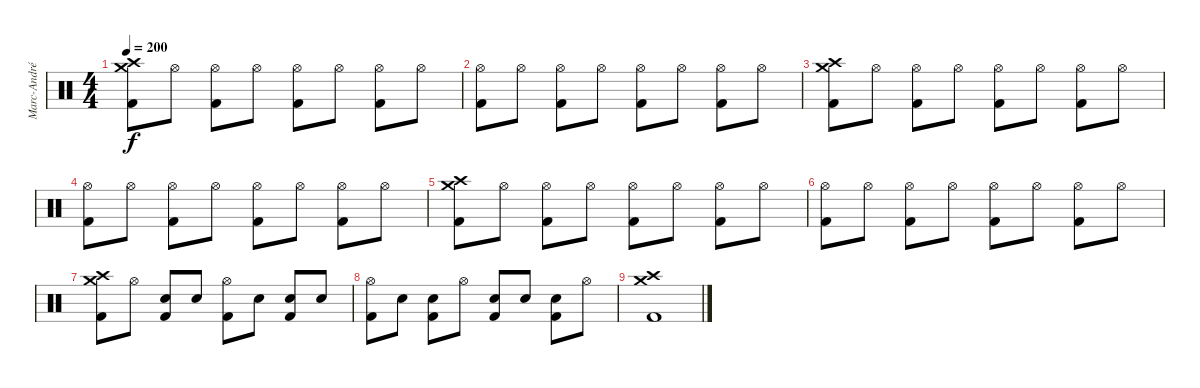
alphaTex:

\track ("Marc-André Barabé" "Marc-André") {instrument percussion}
\staff {score}
\articulation defaults
\ts (4 4)
\tempo 200
\clef neutral
\ks c
("Crash high (hit)" "Crash medium (hit)" "Kick (hit) 2").8{dy f} "Hi-Hat (open)".8 ("Hi-Hat (open)" "Kick (hit) 2").8 "Hi-Hat (open)".8 ("Hi-Hat (open)" "Kick (hit) 2").8 "Hi-Hat (open)".8 ("Hi-Hat (open)" "Kick (hit) 2").8 "Hi-Hat (open)".8 |
("Hi-Hat (open)" "Kick (hit) 2").8 "Hi-Hat (open)".8 ("Hi-Hat (open)" "Kick (hit) 2").8 "Hi-Hat (open)".8 ("Hi-Hat (open)" "Kick (hit) 2").8 "Hi-Hat (open)".8 ("Hi-Hat (open)" "Kick (hit) 2").8 "Hi-Hat (open)".8 |
("Crash high (hit)" "Crash medium (hit)" "Kick (hit) 2").8 "Hi-Hat (open)".8 ("Hi-Hat (open)" "Kick (hit) 2").8 "Hi-Hat (open)".8 ("Hi-Hat (open)" "Kick (hit) 2").8 "Hi-Hat (open)".8 ("Hi-Hat (open)" "Kick (hit) 2").8 "Hi-Hat (open)".8 |
("Hi-Hat (open)" "Kick (hit) 2").8 "Hi-Hat (open)".8 ("Hi-Hat (open)" "Kick (hit) 2").8 "Hi-Hat (open)".8 ("Hi-Hat (open)" "Kick (hit) 2").8 "Hi-Hat (open)".8 ("Hi-Hat (open)" "Kick (hit) 2").8 "Hi-Hat (open)".8 |
("Crash high (hit)" "Crash medium (hit)" "Kick (hit) 2").8 "Hi-Hat (open)".8 ("Hi-Hat (open)" "Kick (hit) 2").8 "Hi-Hat (open)".8 ("Hi-Hat (open)" "Kick (hit) 2").8 "Hi-Hat (open)".8 ("Hi-Hat (open)" "Kick (hit) 2").8 "Hi-Hat (open)".8 |
("Hi-Hat (open)" "Kick (hit) 2").8 "Hi-Hat (open)".8 ("Hi-Hat (open)" "Kick (hit) 2").8 "Hi-Hat (open)".8 ("Hi-Hat (open)" "Kick (hit) 2").8 "Hi-Hat (open)".8 ("Hi-Hat (open)" "Kick (hit) 2").8 "Hi-Hat (open)".8 |
("Crash high (hit)" "Crash medium (hit)" "Kick (hit) 2").8 "Hi-Hat (open)".8 ("Electric Snare (hit)" "Kick (hit) 2").8 "Electric Snare (hit)".8 ("Hi-Hat (open)" "Kick (hit) 2").8 "Electric Snare (hit)".8 ("Electric Snare (hit)" "Kick (hit) 2").8 "Electric Snare (hit)".8 |
("Hi-Hat (open)" "Kick (hit) 2").8 "Electric Snare (hit)".8 ("Electric Snare (hit)" "Kick (hit) 2").8 "Hi-Hat (open)".8 ("Electric Snare (hit)" "Kick (hit) 2").8 "Electric Snare (hit)".8 ("Electric Snare (hit)" "Kick (hit) 2").8 "Hi-Hat (open)".8 |
("Crash high (hit)" "Crash medium (hit)" "Kick (hit) 2").1
